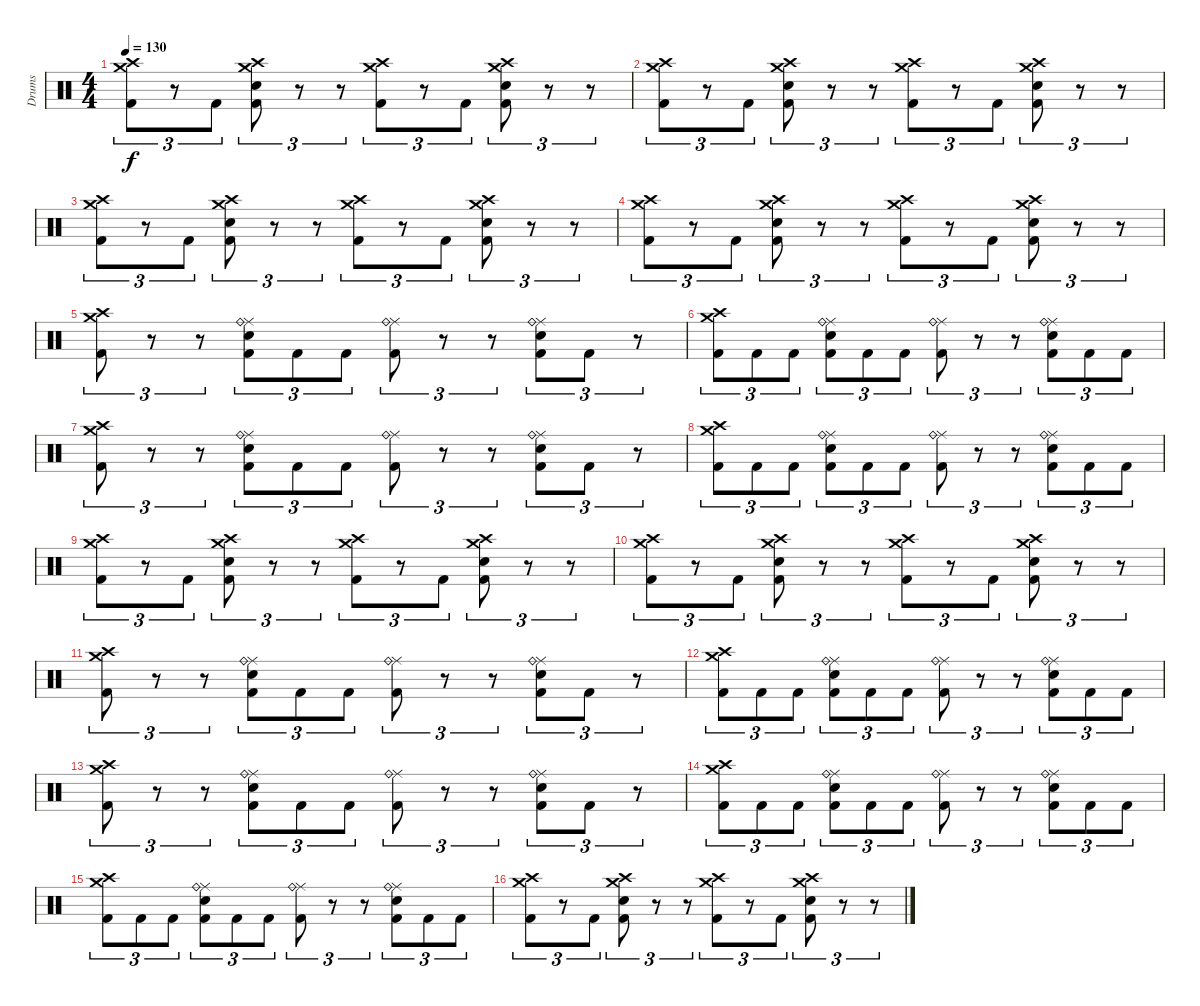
\track ("Drums" "Drums") {instrument percussion}
\staff {score}
\articulation defaults
\ts (4 4)
\tempo 130
\clef neutral
\ks c
("Crash medium (hit)" "Crash high (hit)" "Kick (hit) 2").8{tu (3 2) dy f} r.8{tu (3 2)} "Kick (hit) 2".8{tu (3 2)} ("Crash medium (hit)" "Crash high (hit)" "Snare (hit) 2" "Kick (hit) 2").8{tu (3 2)} r.8{tu (3 2)} r.8{tu (3 2)} ("Crash medium (hit)" "Crash high (hit)" "Kick (hit) 2").8{tu (3 2)} r.8{tu (3 2)} "Kick (hit) 2".8{tu (3 2)} ("Crash medium (hit)" "Crash high (hit)" "Snare (hit) 2" "Kick (hit) 2").8{tu (3 2)} r.8{tu (3 2)} r.8{tu (3 2)} |
("Crash medium (hit)" "Crash high (hit)" "Kick (hit) 2").8{tu (3 2)} r.8{tu (3 2)} "Kick (hit) 2".8{tu (3 2)} ("Crash medium (hit)" "Crash high (hit)" "Snare (hit) 2" "Kick (hit) 2").8{tu (3 2)} r.8{tu (3 2)} r.8{tu (3 2)} ("Crash medium (hit)" "Crash high (hit)" "Kick (hit) 2").8{tu (3 2)} r.8{tu (3 2)} "Kick (hit) 2".8{tu (3 2)} ("Crash medium (hit)" "Crash high (hit)" "Snare (hit) 2" "Kick (hit) 2").8{tu (3 2)} r.8{tu (3 2)} r.8{tu (3 2)} |
("Crash medium (hit)" "Crash high (hit)" "Kick (hit) 2").8{tu (3 2)} r.8{tu (3 2)} "Kick (hit) 2".8{tu (3 2)} ("Crash medium (hit)" "Crash high (hit)" "Snare (hit) 2" "Kick (hit) 2").8{tu (3 2)} r.8{tu (3 2)} r.8{tu (3 2)} ("Crash medium (hit)" "Crash high (hit)" "Kick (hit) 2").8{tu (3 2)} r.8{tu (3 2)} "Kick (hit) 2".8{tu (3 2)} ("Crash medium (hit)" "Crash high (hit)" "Snare (hit) 2" "Kick (hit) 2").8{tu (3 2)} r.8{tu (3 2)} r.8{tu (3 2)} |
("Crash medium (hit)" "Crash high (hit)" "Kick (hit) 2").8{tu (3 2)} r.8{tu (3 2)} "Kick (hit) 2".8{tu (3 2)} ("Crash medium (hit)" "Crash high (hit)" "Snare (hit) 2" "Kick (hit) 2").8{tu (3 2)} r.8{tu (3 2)} r.8{tu (3 2)} ("Crash medium (hit)" "Crash high (hit)" "Kick (hit) 2").8{tu (3 2)} r.8{tu (3 2)} "Kick (hit) 2".8{tu (3 2)} ("Crash medium (hit)" "Crash high (hit)" "Snare (hit) 2" "Kick (hit) 2").8{tu (3 2)} r.8{tu (3 2)} r.8{tu (3 2)} |
("Crash medium (hit)" "Crash high (hit)" "Kick (hit) 2").8{tu (3 2)} r.8{tu (3 2)} r.8{tu (3 2)} ("Ride (middle)" "Ride (bell)" "Snare (hit) 2" "Kick (hit) 2").8{tu (3 2)} "Kick (hit) 2".8{tu (3 2)} "Kick (hit) 2".8{tu (3 2)} ("Ride (middle)" "Ride (bell)" "Kick (hit) 2").8{tu (3 2)} r.8{tu (3 2)} r.8{tu (3 2)} ("Ride (middle)" "Ride (bell)" "Snare (hit) 2" "Kick (hit) 2").8{tu (3 2)} "Kick (hit) 2".8{tu (3 2)} r.8{tu (3 2)} |
("Crash medium (hit)" "Crash high (hit)" "Kick (hit) 2").8{tu (3 2)} "Kick (hit) 2".8{tu (3 2)} "Kick (hit) 2".8{tu (3 2)} ("Ride (middle)" "Ride (bell)" "Snare (hit) 2" "Kick (hit) 2").8{tu (3 2)} "Kick (hit) 2".8{tu (3 2)} "Kick (hit) 2".8{tu (3 2)} ("Ride (middle)" "Ride (bell)" "Kick (hit) 2").8{tu (3 2)} r.8{tu (3 2)} r.8{tu (3 2)} ("Ride (middle)" "Ride (bell)" "Snare (hit) 2" "Kick (hit) 2").8{tu (3 2)} "Kick (hit) 2".8{tu (3 2)} "Kick (hit) 2".8{tu (3 2)} |
("Crash medium (hit)" "Crash high (hit)" "Kick (hit) 2").8{tu (3 2)} r.8{tu (3 2)} r.8{tu (3 2)} ("Ride (middle)" "Ride (bell)" "Snare (hit) 2" "Kick (hit) 2").8{tu (3 2)} "Kick (hit) 2".8{tu (3 2)} "Kick (hit) 2".8{tu (3 2)} ("Ride (middle)" "Ride (bell)" "Kick (hit) 2").8{tu (3 2)} r.8{tu (3 2)} r.8{tu (3 2)} ("Ride (middle)" "Ride (bell)" "Snare (hit) 2" "Kick (hit) 2").8{tu (3 2)} "Kick (hit) 2".8{tu (3 2)} r.8{tu (3 2)} |
("Crash medium (hit)" "Crash high (hit)" "Kick (hit) 2").8{tu (3 2)} "Kick (hit) 2".8{tu (3 2)} "Kick (hit) 2".8{tu (3 2)} ("Ride (middle)" "Ride (bell)" "Snare (hit) 2" "Kick (hit) 2").8{tu (3 2)} "Kick (hit) 2".8{tu (3 2)} "Kick (hit) 2".8{tu (3 2)} ("Ride (middle)" "Ride (bell)" "Kick (hit) 2").8{tu (3 2)} r.8{tu (3 2)} r.8{tu (3 2)} ("Ride (middle)" "Ride (bell)" "Snare (hit) 2" "Kick (hit) 2").8{tu (3 2)} "Kick (hit) 2".8{tu (3 2)} "Kick (hit) 2".8{tu (3 2)} |
("Crash medium (hit)" "Crash high (hit)" "Kick (hit) 2").8{tu (3 2)} r.8{tu (3 2)} "Kick (hit) 2".8{tu (3 2)} ("Crash medium (hit)" "Crash high (hit)" "Snare (hit) 2" "Kick (hit) 2").8{tu (3 2)} r.8{tu (3 2)} r.8{tu (3 2)} ("Crash medium (hit)" "Crash high (hit)" "Kick (hit) 2").8{tu (3 2)} r.8{tu (3 2)} "Kick (hit) 2".8{tu (3 2)} ("Crash medium (hit)" "Crash high (hit)" "Snare (hit) 2" "Kick (hit) 2").8{tu (3 2)} r.8{tu (3 2)} r.8{tu (3 2)} |
("Crash medium (hit)" "Crash high (hit)" "Kick (hit) 2").8{tu (3 2)} r.8{tu (3 2)} "Kick (hit) 2".8{tu (3 2)} ("Crash medium (hit)" "Crash high (hit)" "Snare (hit) 2" "Kick (hit) 2").8{tu (3 2)} r.8{tu (3 2)} r.8{tu (3 2)} ("Crash medium (hit)" "Crash high (hit)" "Kick (hit) 2").8{tu (3 2)} r.8{tu (3 2)} "Kick (hit) 2".8{tu (3 2)} ("Crash medium (hit)" "Crash high (hit)" "Snare (hit) 2" "Kick (hit) 2").8{tu (3 2)} r.8{tu (3 2)} r.8{tu (3 2)} |
("Crash medium (hit)" "Crash high (hit)" "Kick (hit) 2").8{tu (3 2)} r.8{tu (3 2)} r.8{tu (3 2)} ("Ride (middle)" "Ride (bell)" "Snare (hit) 2" "Kick (hit) 2").8{tu (3 2)} "Kick (hit) 2".8{tu (3 2)} "Kick (hit) 2".8{tu (3 2)} ("Ride (middle)" "Ride (bell)" "Kick (hit) 2").8{tu (3 2)} r.8{tu (3 2)} r.8{tu (3 2)} ("Ride (middle)" "Ride (bell)" "Snare (hit) 2" "Kick (hit) 2").8{tu (3 2)} "Kick (hit) 2".8{tu (3 2)} r.8{tu (3 2)} |
("Crash medium (hit)" "Crash high (hit)" "Kick (hit) 2").8{tu (3 2)} "Kick (hit) 2".8{tu (3 2)} "Kick (hit) 2".8{tu (3 2)} ("Ride (middle)" "Ride (bell)" "Snare (hit) 2" "Kick (hit) 2").8{tu (3 2)} "Kick (hit) 2".8{tu (3 2)} "Kick (hit) 2".8{tu (3 2)} ("Ride (middle)" "Ride (bell)" "Kick (hit) 2").8{tu (3 2)} r.8{tu (3 2)} r.8{tu (3 2)} ("Ride (middle)" "Ride (bell)" "Snare (hit) 2" "Kick (hit) 2").8{tu (3 2)} "Kick (hit) 2".8{tu (3 2)} "Kick (hit) 2".8{tu (3 2)} |
("Crash medium (hit)" "Crash high (hit)" "Kick (hit) 2").8{tu (3 2)} r.8{tu (3 2)} r.8{tu (3 2)} ("Ride (middle)" "Ride (bell)" "Snare (hit) 2" "Kick (hit) 2").8{tu (3 2)} "Kick (hit) 2".8{tu (3 2)} "Kick (hit) 2".8{tu (3 2)} ("Ride (middle)" "Ride (bell)" "Kick (hit) 2").8{tu (3 2)} r.8{tu (3 2)} r.8{tu (3 2)} ("Ride (middle)" "Ride (bell)" "Snare (hit) 2" "Kick (hit) 2").8{tu (3 2)} "Kick (hit) 2".8{tu (3 2)} r.8{tu (3 2)} |
("Crash medium (hit)" "Crash high (hit)" "Kick (hit) 2").8{tu (3 2)} "Kick (hit) 2".8{tu (3 2)} "Kick (hit) 2".8{tu (3 2)} ("Ride (middle)" "Ride (bell)" "Snare (hit) 2" "Kick (hit) 2").8{tu (3 2)} "Kick (hit) 2".8{tu (3 2)} "Kick (hit) 2".8{tu (3 2)} ("Ride (middle)" "Ride (bell)" "Kick (hit) 2").8{tu (3 2)} r.8{tu (3 2)} r.8{tu (3 2)} ("Ride (middle)" "Ride (bell)" "Snare (hit) 2" "Kick (hit) 2").8{tu (3 2)} "Kick (hit) 2".8{tu (3 2)} "Kick (hit) 2".8{tu (3 2)} |
("Crash medium (hit)" "Crash high (hit)" "Kick (hit) 2").8{tu (3 2)} "Kick (hit) 2".8{tu (3 2)} "Kick (hit) 2".8{tu (3 2)} ("Ride (middle)" "Ride (bell)" "Snare (hit) 2" "Kick (hit) 2").8{tu (3 2)} "Kick (hit) 2".8{tu (3 2)} "Kick (hit) 2".8{tu (3 2)} ("Ride (middle)" "Ride (bell)" "Kick (hit) 2").8{tu (3 2)} r.8{tu (3 2)} r.8{tu (3 2)} ("Ride (middle)" "Ride (bell)" "Snare (hit) 2" "Kick (hit) 2").8{tu (3 2)} "Kick (hit) 2".8{tu (3 2)} "Kick (hit) 2".8{tu (3 2)} |
("Crash medium (hit)" "Crash high (hit)" "Kick (hit) 2").8{tu (3 2)} r.8{tu (3 2)} "Kick (hit) 2".8{tu (3 2)} ("Crash medium (hit)" "Crash high (hit)" "Snare (hit) 2" "Kick (hit) 2").8{tu (3 2)} r.8{tu (3 2)} r.8{tu (3 2)} ("Crash medium (hit)" "Crash high (hit)" "Kick (hit) 2").8{tu (3 2)} r.8{tu (3 2)} "Kick (hit) 2".8{tu (3 2)} ("Crash medium (hit)" "Crash high (hit)" "Snare (hit) 2" "Kick (hit) 2").8{tu (3 2)} r.8{tu (3 2)} r.8{tu (3 2)}
